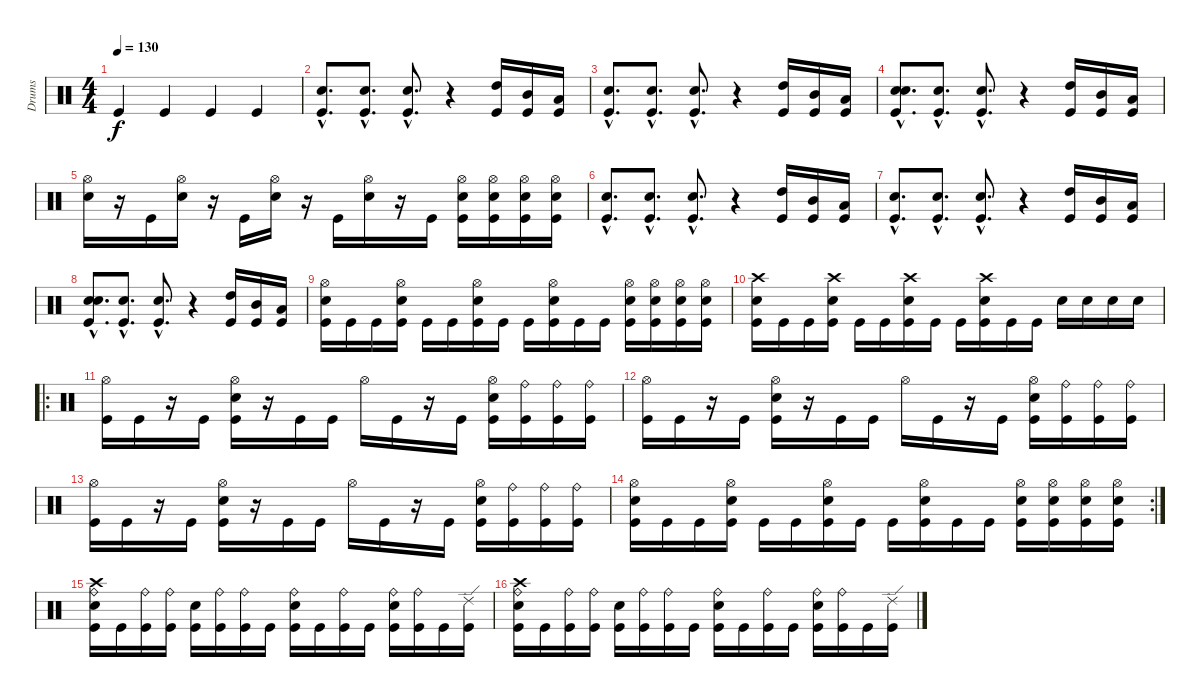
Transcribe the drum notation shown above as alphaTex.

\track ("Drums" "Drums") {instrument percussion}
\staff {score}
\articulation defaults
\ts (4 4)
\tempo 130
\clef neutral
\ks c "Kick (hit)".4{dy f} "Kick (hit)".4 "Kick (hit)".4 "Kick (hit)".4
|
("Kick (hit)"{hac} "Electric Snare (hit)"{hac}).8{d} ("Kick (hit)"{hac} "Electric Snare (hit)"{hac}).8{d} ("Kick (hit)"{hac} "Electric Snare (hit)"{hac}).8{d} r.4 ("Kick (hit)" "High Tom (hit)").16 ("Kick (hit)" "Mid Tom (hit)").16 ("Kick (hit)" "Low Tom (hit)").16 |
("Kick (hit)"{hac} "Electric Snare (hit)"{hac}).8{d} ("Kick (hit)"{hac} "Electric Snare (hit)"{hac}).8{d} ("Kick (hit)"{hac} "Electric Snare (hit)"{hac}).8{d} r.4 ("Kick (hit)" "High Tom (hit)").16 ("Kick (hit)" "Mid Tom (hit)").16 ("Kick (hit)" "Low Tom (hit)").16 |
("Kick (hit)"{hac} "Electric Snare (hit)"{hac} "Electric Snare (hit)"{hac}).8{d} ("Kick (hit)"{hac} "Electric Snare (hit)"{hac}).8{d} ("Kick (hit)"{hac} "Electric Snare (hit)"{hac}).8{d} r.4 ("Kick (hit)" "High Tom (hit)").16 ("Kick (hit)" "Mid Tom (hit)").16 ("Kick (hit)" "Low Tom (hit)").16 |
("Hi-Hat (open)" "Electric Snare (hit)").16 r.16 "Kick (hit)".16 ("Electric Snare (hit)" "Hi-Hat (open)").16 r.16 "Kick (hit)".16 ("Electric Snare (hit)" "Hi-Hat (open)").16 r.16 "Kick (hit)".16 ("Electric Snare (hit)" "Hi-Hat (open)").16 r.16 "Kick (hit)".16 ("Kick (hit)" "Electric Snare (hit)" "Hi-Hat (open)").16 ("Kick (hit)" "Electric Snare (hit)" "Hi-Hat (open)").16 ("Kick (hit)" "Electric Snare (hit)" "Hi-Hat (open)").16 ("Kick (hit)" "Electric Snare (hit)" "Hi-Hat (open)").16 |
("Kick (hit)"{hac} "Electric Snare (hit)"{hac}).8{d} ("Kick (hit)"{hac} "Electric Snare (hit)"{hac}).8{d} ("Kick (hit)"{hac} "Electric Snare (hit)"{hac}).8{d} r.4 ("Kick (hit)" "High Tom (hit)").16 ("Kick (hit)" "Mid Tom (hit)").16 ("Kick (hit)" "Low Tom (hit)").16 |
("Kick (hit)"{hac} "Electric Snare (hit)"{hac}).8{d} ("Kick (hit)"{hac} "Electric Snare (hit)"{hac}).8{d} ("Kick (hit)"{hac} "Electric Snare (hit)"{hac}).8{d} r.4 ("Kick (hit)" "High Tom (hit)").16 ("Kick (hit)" "Mid Tom (hit)").16 ("Kick (hit)" "Low Tom (hit)").16 |
("Kick (hit)"{hac} "Electric Snare (hit)"{hac} "Electric Snare (hit)"{hac}).8{d} ("Kick (hit)"{hac} "Electric Snare (hit)"{hac}).8{d} ("Kick (hit)"{hac} "Electric Snare (hit)"{hac}).8{d} r.4 ("Kick (hit)" "High Tom (hit)").16 ("Kick (hit)" "Mid Tom (hit)").16 ("Kick (hit)" "Low Tom (hit)").16 |
("Kick (hit)" "Hi-Hat (open)" "Electric Snare (hit)").16 "Kick (hit)".16 "Kick (hit)".16 ("Kick (hit)" "Electric Snare (hit)" "Hi-Hat (open)").16 "Kick (hit)".16 "Kick (hit)".16 ("Kick (hit)" "Electric Snare (hit)" "Hi-Hat (open)").16 "Kick (hit)".16 "Kick (hit)".16 ("Kick (hit)" "Electric Snare (hit)" "Hi-Hat (open)").16 "Kick (hit)".16 "Kick (hit)".16 ("Kick (hit)" "Electric Snare (hit)" "Hi-Hat (open)").16 ("Kick (hit)" "Electric Snare (hit)" "Hi-Hat (open)").16 ("Kick (hit)" "Electric Snare (hit)" "Hi-Hat (open)").16 ("Kick (hit)" "Electric Snare (hit)" "Hi-Hat (open)").16 |
("Crash high (hit)" "Electric Snare (hit)" "Kick (hit)").16 "Kick (hit)".16 "Kick (hit)".16 ("Crash high (hit)" "Electric Snare (hit)" "Kick (hit)").16 "Kick (hit)".16 "Kick (hit)".16 ("Crash high (hit)" "Electric Snare (hit)" "Kick (hit)").16 "Kick (hit)".16 "Kick (hit)".16 ("Crash high (hit)" "Electric Snare (hit)" "Kick (hit)").16 "Kick (hit)".16 "Kick (hit)".16 "Electric Snare (hit)".16 "Electric Snare (hit)".16 "Electric Snare (hit)".16 "Electric Snare (hit)".16 |
\ro
("Hi-Hat (open)" "Kick (hit)").16 "Kick (hit)".16 r.16 "Kick (hit)".16 ("Electric Snare (hit)" "Hi-Hat (open)" "Kick (hit)").16 r.16 "Kick (hit)".16 "Kick (hit)".16 "Hi-Hat (open)".16 "Kick (hit)".16 r.16 "Kick (hit)".16 ("Electric Snare (hit)" "Hi-Hat (open)" "Kick (hit)").16 ("Ride (bell)" "Kick (hit)").16 ("Ride (bell)" "Kick (hit)").16 ("Ride (bell)" "Kick (hit)").16 |
("Hi-Hat (open)" "Kick (hit)").16 "Kick (hit)".16 r.16 "Kick (hit)".16 ("Electric Snare (hit)" "Hi-Hat (open)" "Kick (hit)").16 r.16 "Kick (hit)".16 "Kick (hit)".16 "Hi-Hat (open)".16 "Kick (hit)".16 r.16 "Kick (hit)".16 ("Electric Snare (hit)" "Hi-Hat (open)" "Kick (hit)").16 ("Ride (bell)" "Kick (hit)").16 ("Ride (bell)" "Kick (hit)").16 ("Ride (bell)" "Kick (hit)").16 |
("Hi-Hat (open)" "Kick (hit)").16 "Kick (hit)".16 r.16 "Kick (hit)".16 ("Electric Snare (hit)" "Hi-Hat (open)" "Kick (hit)").16 r.16 "Kick (hit)".16 "Kick (hit)".16 "Hi-Hat (open)".16 "Kick (hit)".16 r.16 "Kick (hit)".16 ("Electric Snare (hit)" "Hi-Hat (open)" "Kick (hit)").16 ("Ride (bell)" "Kick (hit)").16 ("Ride (bell)" "Kick (hit)").16 ("Ride (bell)" "Kick (hit)").16 |
\rc 2
("Kick (hit)" "Hi-Hat (open)" "Electric Snare (hit)").16 "Kick (hit)".16 "Kick (hit)".16 ("Kick (hit)" "Electric Snare (hit)" "Hi-Hat (open)").16 "Kick (hit)".16 "Kick (hit)".16 ("Kick (hit)" "Electric Snare (hit)" "Hi-Hat (open)").16 "Kick (hit)".16 "Kick (hit)".16 ("Kick (hit)" "Electric Snare (hit)" "Hi-Hat (open)").16 "Kick (hit)".16 "Kick (hit)".16 ("Kick (hit)" "Electric Snare (hit)" "Hi-Hat (open)").16 ("Kick (hit)" "Electric Snare (hit)" "Hi-Hat (open)").16 ("Kick (hit)" "Electric Snare (hit)" "Hi-Hat (open)").16 ("Kick (hit)" "Electric Snare (hit)" "Hi-Hat (open)").16 |
("Crash high (hit)" "Electric Snare (hit)" "Kick (hit)" "Ride (bell)").16 "Kick (hit)".16 ("Kick (hit)" "Ride (bell)").16 ("Kick (hit)" "Ride (bell)").16 ("Electric Snare (hit)" "Kick (hit)").16 ("Kick (hit)" "Ride (bell)").16 ("Kick (hit)" "Ride (bell)").16 "Kick (hit)".16 ("Electric Snare (hit)" "Kick (hit)" "Ride (bell)").16 "Kick (hit)".16 ("Kick (hit)" "Ride (bell)").16 "Kick (hit)".16 ("Electric Snare (hit)" "Kick (hit)" "Ride (bell)").16 ("Kick (hit)" "Ride (bell)").16 "Kick (hit)".16 ("Kick (hit)" "Ride (edge) 2").16 |
("Crash high (hit)" "Electric Snare (hit)" "Kick (hit)" "Ride (bell)").16 "Kick (hit)".16 ("Kick (hit)" "Ride (bell)").16 ("Kick (hit)" "Ride (bell)").16 ("Electric Snare (hit)" "Kick (hit)").16 ("Kick (hit)" "Ride (bell)").16 ("Kick (hit)" "Ride (bell)").16 "Kick (hit)".16 ("Electric Snare (hit)" "Kick (hit)" "Ride (bell)").16 "Kick (hit)".16 ("Kick (hit)" "Ride (bell)").16 "Kick (hit)".16 ("Electric Snare (hit)" "Kick (hit)" "Ride (bell)").16 ("Kick (hit)" "Ride (bell)").16 "Kick (hit)".16 ("Kick (hit)" "Ride (edge) 2").16
